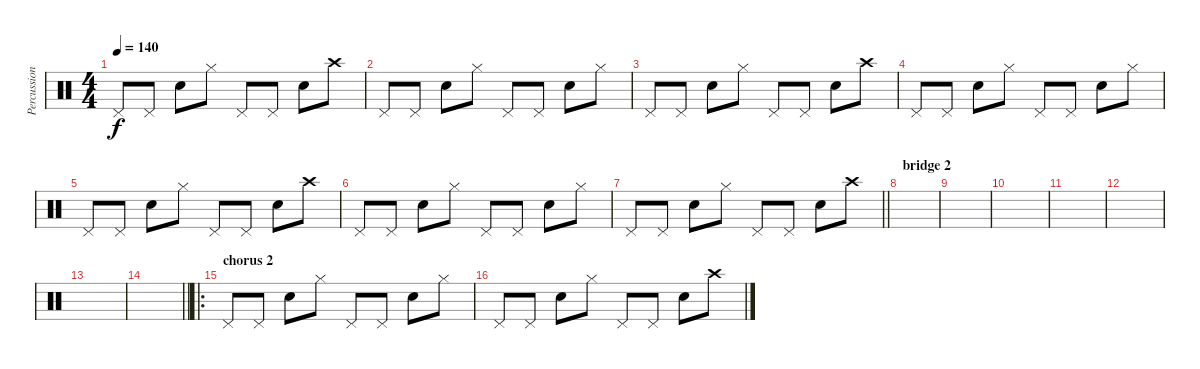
\track ("Percussion" "Percussion") {instrument percussion}
\staff {score}
\articulation defaults
\ts (4 4)
\tempo 140
\clef neutral
\ks c "Pedal Hi-Hat (hit)".8{dy f} "Pedal Hi-Hat (hit)".8 "Snare (hit) 2".8 "Hi-Hat (closed)".8 "Pedal Hi-Hat (hit)".8 "Pedal Hi-Hat (hit)".8 "Snare (hit) 2".8 "Crash high (hit)".8
|
"Pedal Hi-Hat (hit)".8 "Pedal Hi-Hat (hit)".8 "Snare (hit) 2".8 "Hi-Hat (closed)".8 "Pedal Hi-Hat (hit)".8 "Pedal Hi-Hat (hit)".8 "Snare (hit) 2".8 "Hi-Hat (closed)".8 |
"Pedal Hi-Hat (hit)".8 "Pedal Hi-Hat (hit)".8 "Snare (hit) 2".8 "Hi-Hat (closed)".8 "Pedal Hi-Hat (hit)".8 "Pedal Hi-Hat (hit)".8 "Snare (hit) 2".8 "Crash high (hit)".8 |
"Pedal Hi-Hat (hit)".8 "Pedal Hi-Hat (hit)".8 "Snare (hit) 2".8 "Hi-Hat (closed)".8 "Pedal Hi-Hat (hit)".8 "Pedal Hi-Hat (hit)".8 "Snare (hit) 2".8 "Hi-Hat (closed)".8 |
"Pedal Hi-Hat (hit)".8 "Pedal Hi-Hat (hit)".8 "Snare (hit) 2".8 "Hi-Hat (closed)".8 "Pedal Hi-Hat (hit)".8 "Pedal Hi-Hat (hit)".8 "Snare (hit) 2".8 "Crash high (hit)".8 |
"Pedal Hi-Hat (hit)".8 "Pedal Hi-Hat (hit)".8 "Snare (hit) 2".8 "Hi-Hat (closed)".8 "Pedal Hi-Hat (hit)".8 "Pedal Hi-Hat (hit)".8 "Snare (hit) 2".8 "Hi-Hat (closed)".8 |
\barLineRight lightlight "Pedal Hi-Hat (hit)".8 "Pedal Hi-Hat (hit)".8 "Snare (hit) 2".8 "Hi-Hat (closed)".8 "Pedal Hi-Hat (hit)".8 "Pedal Hi-Hat (hit)".8 "Snare (hit) 2".8 "Crash high (hit)".8
|
\section ("" "bridge 2")
|
|
|
|
|
|
\barLineRight lightlight
|
\ro
\section ("" "chorus 2")
"Pedal Hi-Hat (hit)".8 "Pedal Hi-Hat (hit)".8 "Snare (hit) 2".8 "Hi-Hat (closed)".8 "Pedal Hi-Hat (hit)".8 "Pedal Hi-Hat (hit)".8 "Snare (hit) 2".8 "Hi-Hat (closed)".8 |
"Pedal Hi-Hat (hit)".8 "Pedal Hi-Hat (hit)".8 "Snare (hit) 2".8 "Hi-Hat (closed)".8 "Pedal Hi-Hat (hit)".8 "Pedal Hi-Hat (hit)".8 "Snare (hit) 2".8 "Crash high (hit)".8
